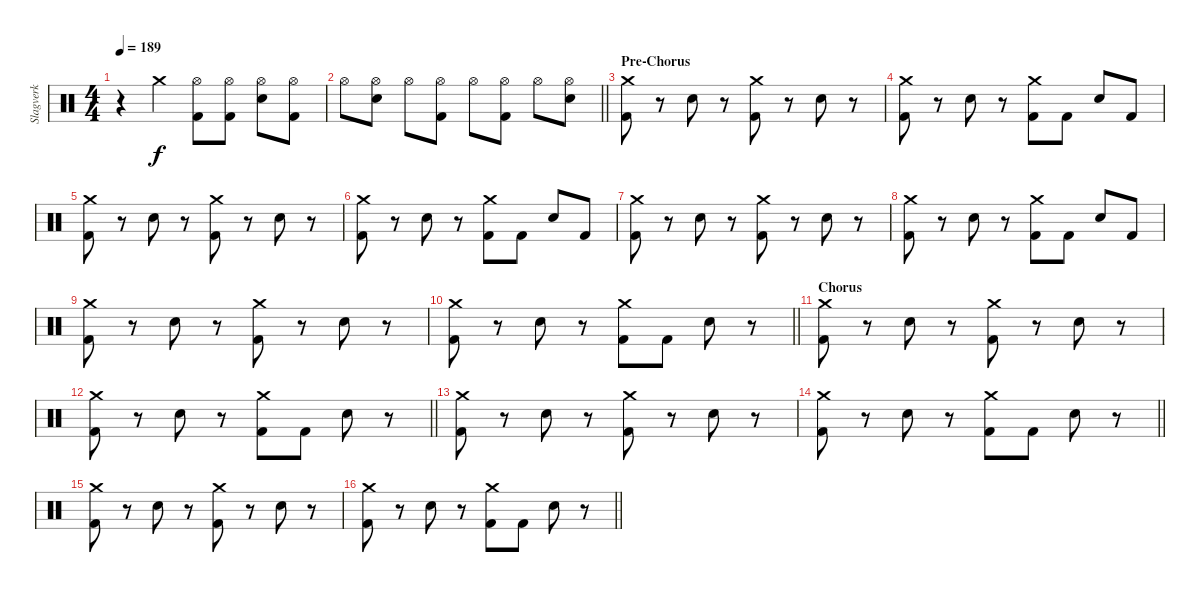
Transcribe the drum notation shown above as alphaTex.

\track ("Slagverk" "Slagverk") {instrument percussion}
\staff {score}
\articulation defaults
\ts (4 4)
\tempo 189
\clef neutral
\ks c
r.4{dy f} "Crash medium (hit)".4 ("Hi-Hat (open)" "Kick (hit) 2").8 ("Hi-Hat (open)" "Kick (hit) 2").8 ("Hi-Hat (open)" "Snare (hit) 2").8 ("Hi-Hat (open)" "Kick (hit) 2").8 |
\barLineRight lightlight "Hi-Hat (open)".8
("Hi-Hat (open)" "Snare (hit) 2").8 "Hi-Hat (open)".8 ("Hi-Hat (open)" "Kick (hit) 2").8 "Hi-Hat (open)".8 ("Hi-Hat (open)" "Kick (hit) 2").8 "Hi-Hat (open)".8 ("Hi-Hat (open)" "Snare (hit) 2").8 |
\section ("" "Pre-Chorus")
("Crash medium (hit)" "Kick (hit) 2").8 r.8 "Snare (hit) 2".8 r.8 ("Crash medium (hit)" "Kick (hit) 2").8 r.8 "Snare (hit) 2".8 r.8 |
("Crash medium (hit)" "Kick (hit) 2").8 r.8 "Snare (hit) 2".8 r.8 ("Crash medium (hit)" "Kick (hit) 2").8 "Kick (hit) 2".8 "Snare (hit) 2".8 "Kick (hit) 2".8 |
("Crash medium (hit)" "Kick (hit) 2").8 r.8 "Snare (hit) 2".8 r.8 ("Crash medium (hit)" "Kick (hit) 2").8 r.8 "Snare (hit) 2".8 r.8 |
("Crash medium (hit)" "Kick (hit) 2").8 r.8 "Snare (hit) 2".8 r.8 ("Crash medium (hit)" "Kick (hit) 2").8 "Kick (hit) 2".8 "Snare (hit) 2".8 "Kick (hit) 2".8 |
("Crash medium (hit)" "Kick (hit) 2").8 r.8 "Snare (hit) 2".8 r.8 ("Crash medium (hit)" "Kick (hit) 2").8 r.8 "Snare (hit) 2".8 r.8 |
("Crash medium (hit)" "Kick (hit) 2").8 r.8 "Snare (hit) 2".8 r.8 ("Crash medium (hit)" "Kick (hit) 2").8 "Kick (hit) 2".8 "Snare (hit) 2".8 "Kick (hit) 2".8 |
("Crash medium (hit)" "Kick (hit) 2").8 r.8 "Snare (hit) 2".8 r.8 ("Crash medium (hit)" "Kick (hit) 2").8 r.8 "Snare (hit) 2".8 r.8 |
\barLineRight lightlight
("Crash medium (hit)" "Kick (hit) 2").8 r.8 "Snare (hit) 2".8 r.8 ("Crash medium (hit)" "Kick (hit) 2").8 "Kick (hit) 2".8 "Snare (hit) 2".8 r.8 |
\section ("" "Chorus")
("Crash medium (hit)" "Kick (hit) 2").8 r.8 "Snare (hit) 2".8 r.8 ("Crash medium (hit)" "Kick (hit) 2").8 r.8 "Snare (hit) 2".8 r.8 |
\barLineRight lightlight
("Crash medium (hit)" "Kick (hit) 2").8 r.8 "Snare (hit) 2".8 r.8 ("Crash medium (hit)" "Kick (hit) 2").8 "Kick (hit) 2".8 "Snare (hit) 2".8 r.8 |
("Crash medium (hit)" "Kick (hit) 2").8 r.8 "Snare (hit) 2".8 r.8 ("Crash medium (hit)" "Kick (hit) 2").8 r.8 "Snare (hit) 2".8 r.8 |
\barLineRight lightlight
("Crash medium (hit)" "Kick (hit) 2").8 r.8 "Snare (hit) 2".8 r.8 ("Crash medium (hit)" "Kick (hit) 2").8 "Kick (hit) 2".8 "Snare (hit) 2".8 r.8 |
("Crash medium (hit)" "Kick (hit) 2").8 r.8 "Snare (hit) 2".8 r.8 ("Crash medium (hit)" "Kick (hit) 2").8 r.8 "Snare (hit) 2".8 r.8 |
\barLineRight lightlight
("Crash medium (hit)" "Kick (hit) 2").8 r.8 "Snare (hit) 2".8 r.8 ("Crash medium (hit)" "Kick (hit) 2").8 "Kick (hit) 2".8 "Snare (hit) 2".8 r.8
